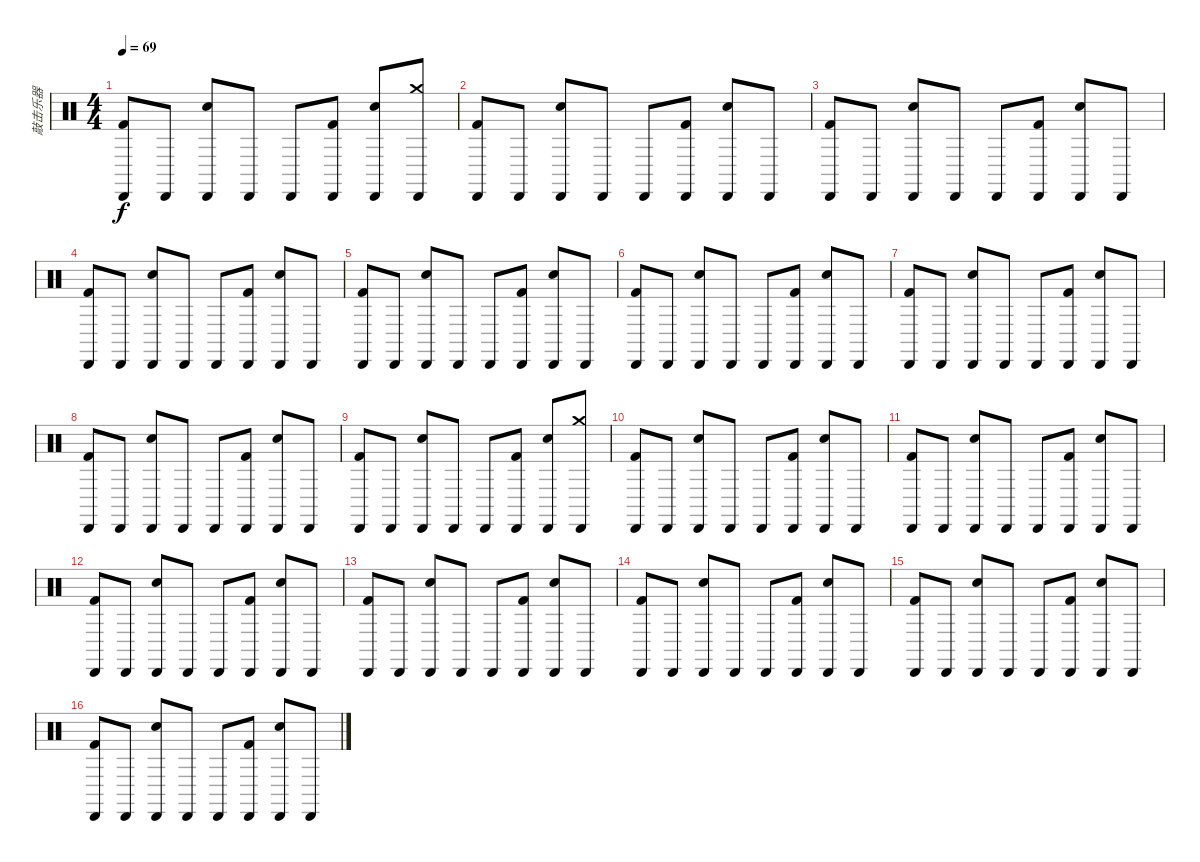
\track ("敲击乐器" "敲击乐器") {instrument percussion}
\staff {score}
\articulation defaults
\ts (4 4)
\tempo 69
\clef neutral
\ks c
("Cabasa (hit)" "Kick (hit) 2").8{dy f} "Cabasa (hit)".8 ("Cabasa (hit)" "Electric Snare (hit)").8 "Cabasa (hit)".8 "Cabasa (hit)".8 ("Cabasa (hit)" "Kick (hit) 2").8 ("Cabasa (hit)" "Electric Snare (hit)").8 ("Cabasa (hit)" "Crash medium (hit)").8 |
("Cabasa (hit)" "Kick (hit) 2").8 "Cabasa (hit)".8 ("Cabasa (hit)" "Electric Snare (hit)").8 "Cabasa (hit)".8 "Cabasa (hit)".8 ("Cabasa (hit)" "Kick (hit) 2").8 ("Cabasa (hit)" "Electric Snare (hit)").8 "Cabasa (hit)".8 |
("Cabasa (hit)" "Kick (hit) 2").8 "Cabasa (hit)".8 ("Cabasa (hit)" "Electric Snare (hit)").8 "Cabasa (hit)".8 "Cabasa (hit)".8 ("Cabasa (hit)" "Kick (hit) 2").8 ("Cabasa (hit)" "Electric Snare (hit)").8 "Cabasa (hit)".8 |
("Cabasa (hit)" "Kick (hit) 2").8 "Cabasa (hit)".8 ("Cabasa (hit)" "Electric Snare (hit)").8 "Cabasa (hit)".8 "Cabasa (hit)".8 ("Cabasa (hit)" "Kick (hit) 2").8 ("Cabasa (hit)" "Electric Snare (hit)").8 "Cabasa (hit)".8 |
("Cabasa (hit)" "Kick (hit) 2").8 "Cabasa (hit)".8 ("Cabasa (hit)" "Electric Snare (hit)").8 "Cabasa (hit)".8 "Cabasa (hit)".8 ("Cabasa (hit)" "Kick (hit) 2").8 ("Cabasa (hit)" "Electric Snare (hit)").8 "Cabasa (hit)".8 |
("Cabasa (hit)" "Kick (hit) 2").8 "Cabasa (hit)".8 ("Cabasa (hit)" "Electric Snare (hit)").8 "Cabasa (hit)".8 "Cabasa (hit)".8 ("Cabasa (hit)" "Kick (hit) 2").8 ("Cabasa (hit)" "Electric Snare (hit)").8 "Cabasa (hit)".8 |
("Cabasa (hit)" "Kick (hit) 2").8 "Cabasa (hit)".8 ("Cabasa (hit)" "Electric Snare (hit)").8 "Cabasa (hit)".8 "Cabasa (hit)".8 ("Cabasa (hit)" "Kick (hit) 2").8 ("Cabasa (hit)" "Electric Snare (hit)").8 "Cabasa (hit)".8 |
("Cabasa (hit)" "Kick (hit) 2").8 "Cabasa (hit)".8 ("Cabasa (hit)" "Electric Snare (hit)").8 "Cabasa (hit)".8 "Cabasa (hit)".8 ("Cabasa (hit)" "Kick (hit) 2").8 ("Cabasa (hit)" "Electric Snare (hit)").8 "Cabasa (hit)".8 |
("Cabasa (hit)" "Kick (hit) 2").8 "Cabasa (hit)".8 ("Cabasa (hit)" "Electric Snare (hit)").8 "Cabasa (hit)".8 "Cabasa (hit)".8 ("Cabasa (hit)" "Kick (hit) 2").8 ("Cabasa (hit)" "Electric Snare (hit)").8 ("Cabasa (hit)" "Crash medium (hit)").8 |
("Cabasa (hit)" "Kick (hit) 2").8 "Cabasa (hit)".8 ("Cabasa (hit)" "Electric Snare (hit)").8 "Cabasa (hit)".8 "Cabasa (hit)".8 ("Cabasa (hit)" "Kick (hit) 2").8 ("Cabasa (hit)" "Electric Snare (hit)").8 "Cabasa (hit)".8 |
("Cabasa (hit)" "Kick (hit) 2").8 "Cabasa (hit)".8 ("Cabasa (hit)" "Electric Snare (hit)").8 "Cabasa (hit)".8 "Cabasa (hit)".8 ("Cabasa (hit)" "Kick (hit) 2").8 ("Cabasa (hit)" "Electric Snare (hit)").8 "Cabasa (hit)".8 |
("Cabasa (hit)" "Kick (hit) 2").8 "Cabasa (hit)".8 ("Cabasa (hit)" "Electric Snare (hit)").8 "Cabasa (hit)".8 "Cabasa (hit)".8 ("Cabasa (hit)" "Kick (hit) 2").8 ("Cabasa (hit)" "Electric Snare (hit)").8 "Cabasa (hit)".8 |
("Cabasa (hit)" "Kick (hit) 2").8 "Cabasa (hit)".8 ("Cabasa (hit)" "Electric Snare (hit)").8 "Cabasa (hit)".8 "Cabasa (hit)".8 ("Cabasa (hit)" "Kick (hit) 2").8 ("Cabasa (hit)" "Electric Snare (hit)").8 "Cabasa (hit)".8 |
("Cabasa (hit)" "Kick (hit) 2").8 "Cabasa (hit)".8 ("Cabasa (hit)" "Electric Snare (hit)").8 "Cabasa (hit)".8 "Cabasa (hit)".8 ("Cabasa (hit)" "Kick (hit) 2").8 ("Cabasa (hit)" "Electric Snare (hit)").8 "Cabasa (hit)".8 |
("Cabasa (hit)" "Kick (hit) 2").8 "Cabasa (hit)".8 ("Cabasa (hit)" "Electric Snare (hit)").8 "Cabasa (hit)".8 "Cabasa (hit)".8 ("Cabasa (hit)" "Kick (hit) 2").8 ("Cabasa (hit)" "Electric Snare (hit)").8 "Cabasa (hit)".8 |
("Cabasa (hit)" "Kick (hit) 2").8 "Cabasa (hit)".8 ("Cabasa (hit)" "Electric Snare (hit)").8 "Cabasa (hit)".8 "Cabasa (hit)".8 ("Cabasa (hit)" "Kick (hit) 2").8 ("Cabasa (hit)" "Electric Snare (hit)").8 "Cabasa (hit)".8
